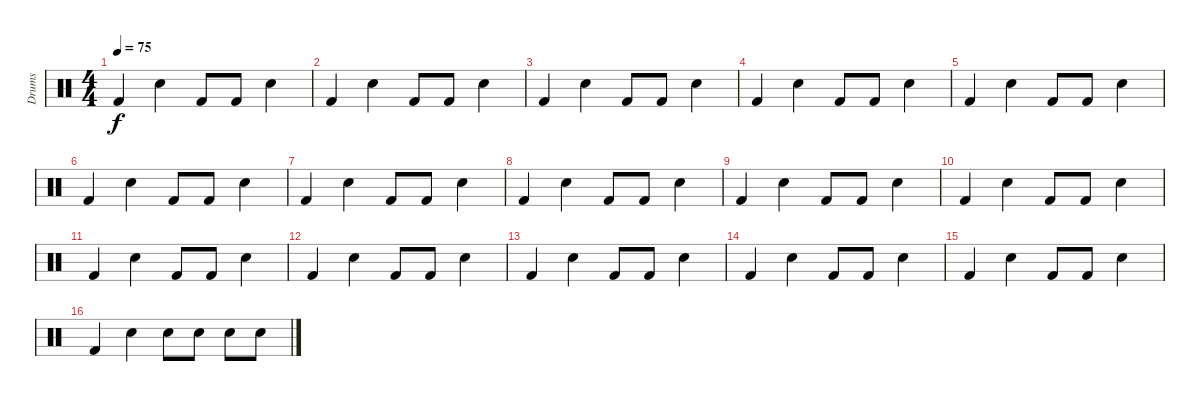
\track ("Drums" "Drums") {instrument percussion}
\staff {score}
\articulation defaults
\ts (4 4)
\tempo 75
\clef neutral
\ks c "Kick (hit) 2".4{dy f} "Snare (hit) 2".4 "Kick (hit) 2".8 "Kick (hit) 2".8 "Snare (hit) 2".4
|
"Kick (hit) 2".4 "Snare (hit) 2".4 "Kick (hit) 2".8 "Kick (hit) 2".8 "Snare (hit) 2".4 |
"Kick (hit) 2".4 "Snare (hit) 2".4 "Kick (hit) 2".8 "Kick (hit) 2".8 "Snare (hit) 2".4 |
"Kick (hit) 2".4 "Snare (hit) 2".4 "Kick (hit) 2".8 "Kick (hit) 2".8 "Snare (hit) 2".4 |
"Kick (hit) 2".4 "Snare (hit) 2".4 "Kick (hit) 2".8 "Kick (hit) 2".8 "Snare (hit) 2".4 |
"Kick (hit) 2".4 "Snare (hit) 2".4 "Kick (hit) 2".8 "Kick (hit) 2".8 "Snare (hit) 2".4 |
"Kick (hit) 2".4 "Snare (hit) 2".4 "Kick (hit) 2".8 "Kick (hit) 2".8 "Snare (hit) 2".4 |
"Kick (hit) 2".4 "Snare (hit) 2".4 "Kick (hit) 2".8 "Kick (hit) 2".8 "Snare (hit) 2".4 |
"Kick (hit) 2".4 "Snare (hit) 2".4 "Kick (hit) 2".8 "Kick (hit) 2".8 "Snare (hit) 2".4 |
"Kick (hit) 2".4 "Snare (hit) 2".4 "Kick (hit) 2".8 "Kick (hit) 2".8 "Snare (hit) 2".4 |
"Kick (hit) 2".4 "Snare (hit) 2".4 "Kick (hit) 2".8 "Kick (hit) 2".8 "Snare (hit) 2".4 |
"Kick (hit) 2".4 "Snare (hit) 2".4 "Kick (hit) 2".8 "Kick (hit) 2".8 "Snare (hit) 2".4 |
"Kick (hit) 2".4 "Snare (hit) 2".4 "Kick (hit) 2".8 "Kick (hit) 2".8 "Snare (hit) 2".4 |
"Kick (hit) 2".4 "Snare (hit) 2".4 "Kick (hit) 2".8 "Kick (hit) 2".8 "Snare (hit) 2".4 |
"Kick (hit) 2".4 "Snare (hit) 2".4 "Kick (hit) 2".8 "Kick (hit) 2".8 "Snare (hit) 2".4 |
"Kick (hit) 2".4 "Snare (hit) 2".4 "Snare (hit) 2".8 "Snare (hit) 2".8 "Snare (hit) 2".8 "Snare (hit) 2".8
